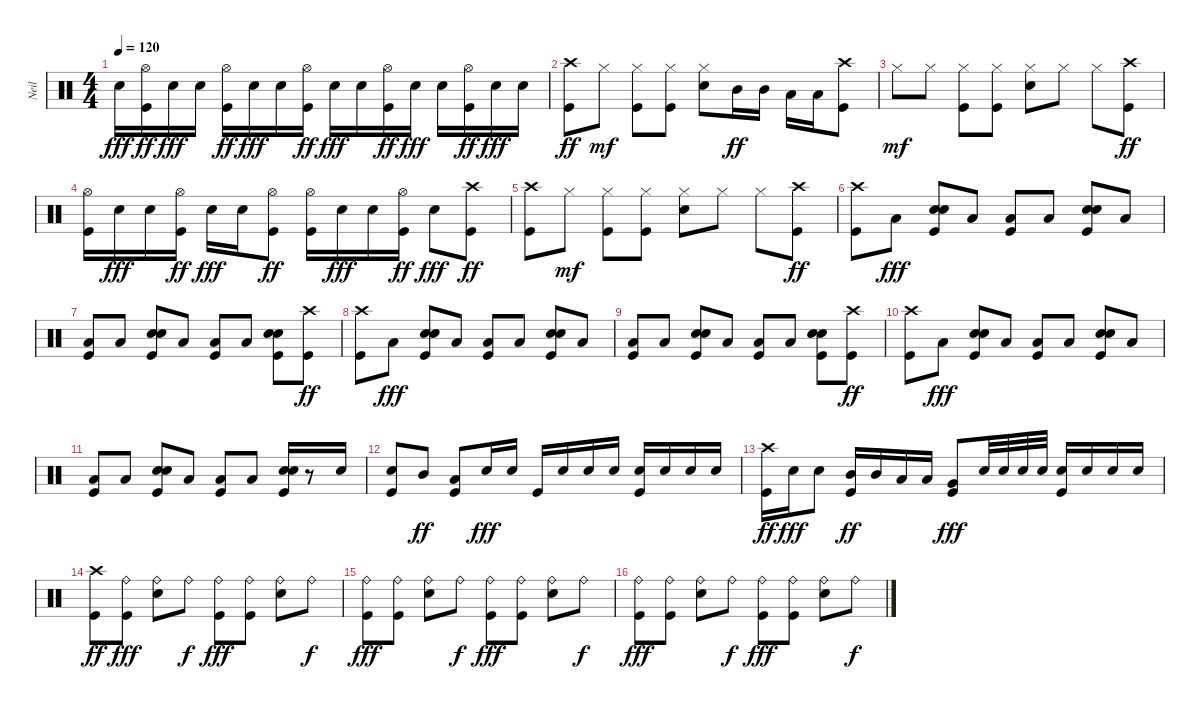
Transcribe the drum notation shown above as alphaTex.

\track ("Neil" "Neil") {instrument percussion}
\staff {score}
\articulation defaults
\ts (4 4)
\tempo 120
\clef neutral
\ks c "Snare (hit) 2".16{dy fff}
("Kick (hit)" "Hi-Hat (open)").16{dy ff} "Snare (hit) 2".16{dy fff} "Snare (hit) 2".16 ("Kick (hit)" "Hi-Hat (open)").16{dy ff} "Snare (hit) 2".16{dy fff} "Snare (hit) 2".16 ("Kick (hit)" "Hi-Hat (open)").16{dy ff} "Snare (hit) 2".16{dy fff} "Snare (hit) 2".16 ("Kick (hit)" "Hi-Hat (open)").16{dy ff} "Snare (hit) 2".16{dy fff} "Snare (hit) 2".16 ("Kick (hit)" "Hi-Hat (open)").16{dy ff} "Snare (hit) 2".16{dy fff} "Snare (hit) 2".16 |
("Kick (hit)" "Crash high (hit)").8{dy ff} "Hi-Hat (closed)".8{dy mf} ("Kick (hit)" "Hi-Hat (closed)").8 ("Kick (hit)" "Hi-Hat (closed)").8 ("Snare (hit) 2" "Hi-Hat (closed)").8 "Mid Tom (hit)".16{dy ff} "Mid Tom (hit)".16 "Low Tom (hit)".16 "Low Tom (hit)".16 ("Kick (hit)" "Crash high (hit)").8 |
"Hi-Hat (closed)".8{dy mf} "Hi-Hat (closed)".8 ("Kick (hit)" "Hi-Hat (closed)").8 ("Kick (hit)" "Hi-Hat (closed)").8 ("Snare (hit) 2" "Hi-Hat (closed)").8 "Hi-Hat (closed)".8 "Hi-Hat (closed)".8 ("Kick (hit)" "Crash high (hit)").8{dy ff} |
("Kick (hit)" "Hi-Hat (open)").16 "Snare (hit) 2".16{dy fff} "Snare (hit) 2".16 ("Kick (hit)" "Hi-Hat (open)").16{dy ff} "Snare (hit) 2".16{dy fff} "Snare (hit) 2".16 ("Kick (hit)" "Hi-Hat (open)").8{dy ff} ("Kick (hit)" "Hi-Hat (open)").16 "Snare (hit) 2".16{dy fff} "Snare (hit) 2".16 ("Kick (hit)" "Hi-Hat (open)").16{dy ff} "Snare (hit) 2".8{dy fff} ("Kick (hit)" "Crash high (hit)").8{dy ff} |
("Kick (hit)" "Crash high (hit)").8 "Hi-Hat (closed)".8{dy mf} ("Kick (hit)" "Hi-Hat (closed)").8 ("Kick (hit)" "Hi-Hat (closed)").8 ("Snare (hit) 2" "Hi-Hat (closed)").8 "Hi-Hat (closed)".8 "Hi-Hat (closed)".8 ("Kick (hit)" "Crash high (hit)").8{dy ff} |
("Kick (hit)" "Crash high (hit)").8 "Low Floor Tom (hit)".8{dy fff} ("Snare (hit) 2" "Kick (hit)" "Snare (hit) 2").8 "Low Floor Tom (hit)".8 ("Kick (hit)" "Low Floor Tom (hit)").8 "Low Floor Tom (hit)".8 ("Snare (hit) 2" "Kick (hit)" "Snare (hit) 2").8 "Low Floor Tom (hit)".8 |
("Kick (hit)" "Low Floor Tom (hit)").8 "Low Floor Tom (hit)".8 ("Snare (hit) 2" "Kick (hit)" "Snare (hit) 2").8 "Low Floor Tom (hit)".8 ("Kick (hit)" "Low Floor Tom (hit)").8 "Low Floor Tom (hit)".8 ("Snare (hit) 2" "Kick (hit)" "Snare (hit) 2").8 ("Kick (hit)" "Crash high (hit)").8{dy ff} |
("Kick (hit)" "Crash high (hit)").8 "Low Floor Tom (hit)".8{dy fff} ("Snare (hit) 2" "Kick (hit)" "Snare (hit) 2").8 "Low Floor Tom (hit)".8 ("Kick (hit)" "Low Floor Tom (hit)").8 "Low Floor Tom (hit)".8 ("Snare (hit) 2" "Kick (hit)" "Snare (hit) 2").8 "Low Floor Tom (hit)".8 |
("Kick (hit)" "Low Floor Tom (hit)").8 "Low Floor Tom (hit)".8 ("Snare (hit) 2" "Kick (hit)" "Snare (hit) 2").8 "Low Floor Tom (hit)".8 ("Kick (hit)" "Low Floor Tom (hit)").8 "Low Floor Tom (hit)".8 ("Snare (hit) 2" "Kick (hit)" "Snare (hit) 2").8 ("Kick (hit)" "Crash high (hit)").8{dy ff} |
("Kick (hit)" "Crash high (hit)").8 "Low Floor Tom (hit)".8{dy fff} ("Snare (hit) 2" "Kick (hit)" "Snare (hit) 2").8 "Low Floor Tom (hit)".8 ("Kick (hit)" "Low Floor Tom (hit)").8 "Low Floor Tom (hit)".8 ("Snare (hit) 2" "Kick (hit)" "Snare (hit) 2").8 "Low Floor Tom (hit)".8 |
("Kick (hit)" "Low Floor Tom (hit)").8 "Low Floor Tom (hit)".8 ("Snare (hit) 2" "Kick (hit)" "Snare (hit) 2").8 "Low Floor Tom (hit)".8 ("Kick (hit)" "Low Floor Tom (hit)").8 "Low Floor Tom (hit)".8 ("Snare (hit) 2" "Kick (hit)" "Snare (hit) 2").16 r.8 "Snare (hit) 2".16 |
("Kick (hit)" "Snare (hit) 2").8 "Mid Tom (hit)".8{dy ff} ("Kick (hit)" "Low Tom (hit)").8 "Snare (hit) 2".16{dy fff} "Snare (hit) 2".16 "Kick (hit)".16 "Snare (hit) 2".16 "Snare (hit) 2".16 "Snare (hit) 2".16 ("Kick (hit)" "Snare (hit) 2").16 "Snare (hit) 2".16 "Snare (hit) 2".16 "Snare (hit) 2".16 |
("Kick (hit)" "Crash high (hit)").16{dy ff} "Snare (hit) 2".16{dy fff} "Snare (hit) 2".8 ("Kick (hit)" "Mid Tom (hit)").16{dy ff} "Mid Tom (hit)".16 "Low Tom (hit)".16 "Low Tom (hit)".16 ("Kick (hit)" "Very Low Tom (hit)").8{dy fff} "Snare (hit) 2".32 "Snare (hit) 2".32 "Snare (hit) 2".32 "Snare (hit) 2".32 ("Kick (hit)" "Snare (hit) 2").16 "Snare (hit) 2".16 "Snare (hit) 2".16 "Snare (hit) 2".16 |
("Kick (hit)" "Crash high (hit)").8{dy ff} ("Kick (hit)" "Ride (bell)").8{dy fff} ("Snare (hit) 2" "Ride (bell)").8 "Ride (bell)".8{dy f} ("Kick (hit)" "Ride (bell)").8{dy fff} ("Kick (hit)" "Ride (bell)").8 ("Snare (hit) 2" "Ride (bell)").8 "Ride (bell)".8{dy f} |
("Kick (hit)" "Ride (bell)").8{dy fff} ("Kick (hit)" "Ride (bell)").8 ("Snare (hit) 2" "Ride (bell)").8 "Ride (bell)".8{dy f} ("Kick (hit)" "Ride (bell)").8{dy fff} ("Kick (hit)" "Ride (bell)").8 ("Snare (hit) 2" "Ride (bell)").8 "Ride (bell)".8{dy f} |
("Kick (hit)" "Ride (bell)").8{dy fff} ("Kick (hit)" "Ride (bell)").8 ("Snare (hit) 2" "Ride (bell)").8 "Ride (bell)".8{dy f} ("Kick (hit)" "Ride (bell)").8{dy fff} ("Kick (hit)" "Ride (bell)").8 ("Snare (hit) 2" "Ride (bell)").8 "Ride (bell)".8{dy f}
